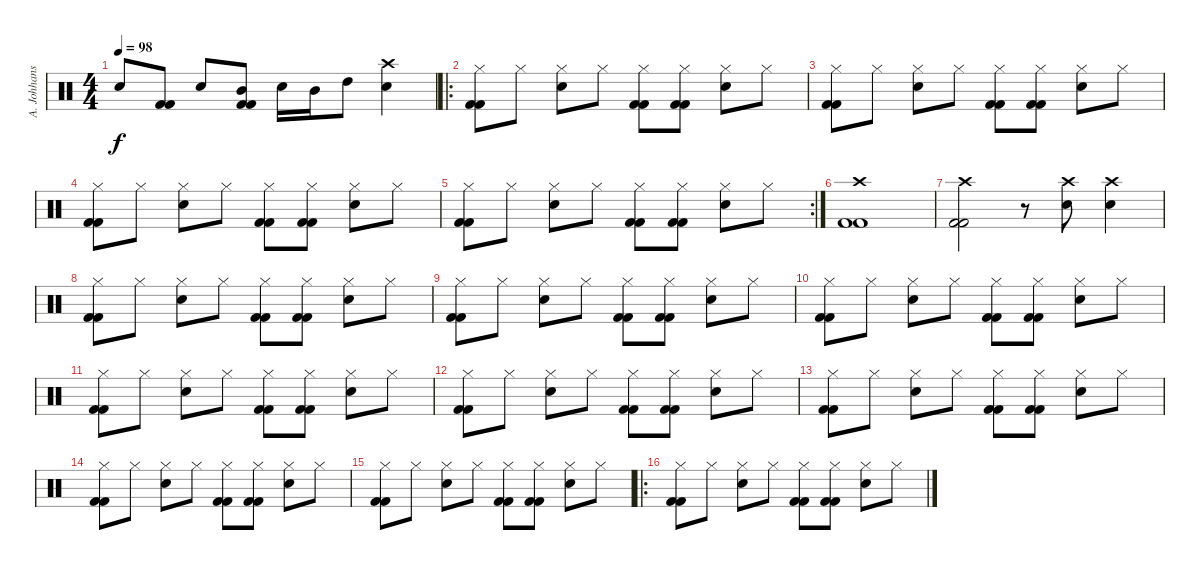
\track ("A. Johhanson" "A. Johhans") {instrument percussion}
\staff {score}
\articulation defaults
\ts (4 4)
\tempo 98
\clef neutral
\ks c "Snare (hit) 2".8{dy f}
("Kick (hit) 2" "Kick (hit) 2").8 "Snare (hit) 2".8 ("Kick (hit) 2" "Kick (hit) 2" "Mid Tom (hit)").8 "Snare (hit) 2".16 "Mid Tom (hit)".16 "High Tom (hit)".8 ("Crash high (hit)" "Snare (hit) 2").4 |
\ro
("Hi-Hat (closed)" "Kick (hit) 2" "Kick (hit) 2").8 "Hi-Hat (closed)".8 ("Hi-Hat (closed)" "Snare (hit) 2").8 "Hi-Hat (closed)".8 ("Hi-Hat (closed)" "Kick (hit) 2" "Kick (hit) 2").8 ("Hi-Hat (closed)" "Kick (hit) 2" "Kick (hit) 2").8 ("Hi-Hat (closed)" "Snare (hit) 2").8 "Hi-Hat (closed)".8 |
("Hi-Hat (closed)" "Kick (hit) 2" "Kick (hit) 2").8 "Hi-Hat (closed)".8 ("Hi-Hat (closed)" "Snare (hit) 2").8 "Hi-Hat (closed)".8 ("Hi-Hat (closed)" "Kick (hit) 2" "Kick (hit) 2").8 ("Hi-Hat (closed)" "Kick (hit) 2" "Kick (hit) 2").8 ("Hi-Hat (closed)" "Snare (hit) 2").8 "Hi-Hat (closed)".8 |
("Hi-Hat (closed)" "Kick (hit) 2" "Kick (hit) 2").8 "Hi-Hat (closed)".8 ("Hi-Hat (closed)" "Snare (hit) 2").8 "Hi-Hat (closed)".8 ("Hi-Hat (closed)" "Kick (hit) 2" "Kick (hit) 2").8 ("Hi-Hat (closed)" "Kick (hit) 2" "Kick (hit) 2").8 ("Hi-Hat (closed)" "Snare (hit) 2").8 "Hi-Hat (closed)".8 |
\rc 2
("Hi-Hat (closed)" "Kick (hit) 2" "Kick (hit) 2").8 "Hi-Hat (closed)".8 ("Hi-Hat (closed)" "Snare (hit) 2").8 "Hi-Hat (closed)".8 ("Hi-Hat (closed)" "Kick (hit) 2" "Kick (hit) 2").8 ("Hi-Hat (closed)" "Kick (hit) 2" "Kick (hit) 2").8 ("Hi-Hat (closed)" "Snare (hit) 2").8 "Hi-Hat (closed)".8 |
("Crash high (hit)" "Kick (hit) 2" "Kick (hit) 2").1 |
("Crash high (hit)" "Kick (hit) 2" "Kick (hit) 2").2 r.8 ("Crash high (hit)" "Snare (hit) 2").8 ("Crash high (hit)" "Snare (hit) 2").4 |
("Hi-Hat (closed)" "Kick (hit) 2" "Kick (hit) 2").8 "Hi-Hat (closed)".8 ("Hi-Hat (closed)" "Snare (hit) 2").8 "Hi-Hat (closed)".8 ("Hi-Hat (closed)" "Kick (hit) 2" "Kick (hit) 2").8 ("Hi-Hat (closed)" "Kick (hit) 2" "Kick (hit) 2").8 ("Hi-Hat (closed)" "Snare (hit) 2").8 "Hi-Hat (closed)".8 |
("Hi-Hat (closed)" "Kick (hit) 2" "Kick (hit) 2").8 "Hi-Hat (closed)".8 ("Hi-Hat (closed)" "Snare (hit) 2").8 "Hi-Hat (closed)".8 ("Hi-Hat (closed)" "Kick (hit) 2" "Kick (hit) 2").8 ("Hi-Hat (closed)" "Kick (hit) 2" "Kick (hit) 2").8 ("Hi-Hat (closed)" "Snare (hit) 2").8 "Hi-Hat (closed)".8 |
("Hi-Hat (closed)" "Kick (hit) 2" "Kick (hit) 2").8 "Hi-Hat (closed)".8 ("Hi-Hat (closed)" "Snare (hit) 2").8 "Hi-Hat (closed)".8 ("Hi-Hat (closed)" "Kick (hit) 2" "Kick (hit) 2").8 ("Hi-Hat (closed)" "Kick (hit) 2" "Kick (hit) 2").8 ("Hi-Hat (closed)" "Snare (hit) 2").8 "Hi-Hat (closed)".8 |
("Hi-Hat (closed)" "Kick (hit) 2" "Kick (hit) 2").8 "Hi-Hat (closed)".8 ("Hi-Hat (closed)" "Snare (hit) 2").8 "Hi-Hat (closed)".8 ("Hi-Hat (closed)" "Kick (hit) 2" "Kick (hit) 2").8 ("Hi-Hat (closed)" "Kick (hit) 2" "Kick (hit) 2").8 ("Hi-Hat (closed)" "Snare (hit) 2").8 "Hi-Hat (closed)".8 |
("Hi-Hat (closed)" "Kick (hit) 2" "Kick (hit) 2").8 "Hi-Hat (closed)".8 ("Hi-Hat (closed)" "Snare (hit) 2").8 "Hi-Hat (closed)".8 ("Hi-Hat (closed)" "Kick (hit) 2" "Kick (hit) 2").8 ("Hi-Hat (closed)" "Kick (hit) 2" "Kick (hit) 2").8 ("Hi-Hat (closed)" "Snare (hit) 2").8 "Hi-Hat (closed)".8 |
("Hi-Hat (closed)" "Kick (hit) 2" "Kick (hit) 2").8 "Hi-Hat (closed)".8 ("Hi-Hat (closed)" "Snare (hit) 2").8 "Hi-Hat (closed)".8 ("Hi-Hat (closed)" "Kick (hit) 2" "Kick (hit) 2").8 ("Hi-Hat (closed)" "Kick (hit) 2" "Kick (hit) 2").8 ("Hi-Hat (closed)" "Snare (hit) 2").8 "Hi-Hat (closed)".8 |
("Hi-Hat (closed)" "Kick (hit) 2" "Kick (hit) 2").8 "Hi-Hat (closed)".8 ("Hi-Hat (closed)" "Snare (hit) 2").8 "Hi-Hat (closed)".8 ("Hi-Hat (closed)" "Kick (hit) 2" "Kick (hit) 2").8 ("Hi-Hat (closed)" "Kick (hit) 2" "Kick (hit) 2").8 ("Hi-Hat (closed)" "Snare (hit) 2").8 "Hi-Hat (closed)".8 |
("Hi-Hat (closed)" "Kick (hit) 2" "Kick (hit) 2").8 "Hi-Hat (closed)".8 ("Hi-Hat (closed)" "Snare (hit) 2").8 "Hi-Hat (closed)".8 ("Hi-Hat (closed)" "Kick (hit) 2" "Kick (hit) 2").8 ("Hi-Hat (closed)" "Kick (hit) 2" "Kick (hit) 2").8 ("Hi-Hat (closed)" "Snare (hit) 2").8 "Hi-Hat (closed)".8 |
\ro
("Hi-Hat (closed)" "Kick (hit) 2" "Kick (hit) 2").8 "Hi-Hat (closed)".8 ("Hi-Hat (closed)" "Snare (hit) 2").8 "Hi-Hat (closed)".8 ("Hi-Hat (closed)" "Kick (hit) 2" "Kick (hit) 2").8 ("Hi-Hat (closed)" "Kick (hit) 2" "Kick (hit) 2").8 ("Hi-Hat (closed)" "Snare (hit) 2").8 "Hi-Hat (closed)".8
